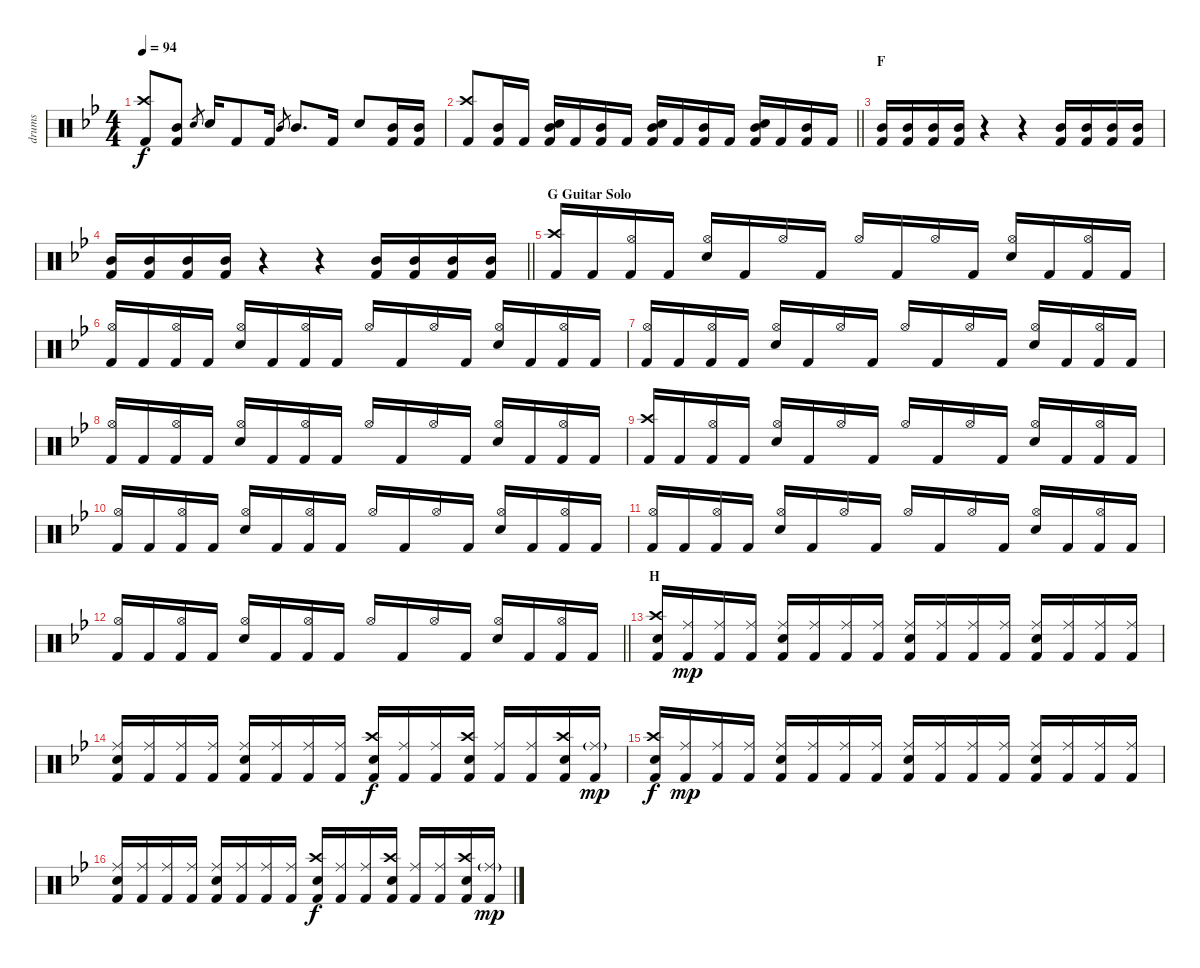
\track ("drums" "drums") {instrument percussion}
\staff {score}
\articulation defaults
\ts (4 4)
\tempo 94
\clef neutral
\ks gminor
("Crash high (hit)" "Kick (hit) 2").8{dy f beam Up} ("Mid Tom (hit)" "Kick (hit) 2").8{beam Up} "Snare (hit) 2".8{gr} "Snare (hit) 2".16 "Kick (hit) 2".8 "Kick (hit) 2".16 "Mid Tom (hit)".8{gr} "Mid Tom (hit)".8{d beam Up} "Kick (hit) 2".16{beam Up} "Snare (hit) 2".8{beam Up} ("Mid Tom (hit)" "Kick (hit) 2").16{beam Up} ("Mid Tom (hit)" "Kick (hit) 2").16{beam Up} |
\barLineRight lightlight
("Crash high (hit)" "Kick (hit) 2").8{beam Up} ("Mid Tom (hit)" "Kick (hit) 2").16{beam Up} "Kick (hit) 2".16{beam Up} ("Mid Tom (hit)" "Snare (hit) 2" "Kick (hit) 2").16{beam Up} "Kick (hit) 2".16{beam Up} ("Mid Tom (hit)" "Kick (hit) 2").16{beam Up} "Kick (hit) 2".16{beam Up} ("Mid Tom (hit)" "Snare (hit) 2" "Kick (hit) 2").16{beam Up} "Kick (hit) 2".16{beam Up} ("Mid Tom (hit)" "Kick (hit) 2").16{beam Up} "Kick (hit) 2".16{beam Up} ("Mid Tom (hit)" "Snare (hit) 2" "Kick (hit) 2").16{beam Up} "Kick (hit) 2".16{beam Up} ("Mid Tom (hit)" "Kick (hit) 2").16{beam Up} "Kick (hit) 2".16{beam Up} |
\section ("" "F")
("Mid Tom (hit)" "Kick (hit) 2").16{beam Up} ("Mid Tom (hit)" "Kick (hit) 2").16{beam Up} ("Mid Tom (hit)" "Kick (hit) 2").16{beam Up} ("Mid Tom (hit)" "Kick (hit) 2").16{beam Up} r.4 r.4 ("Mid Tom (hit)" "Kick (hit) 2").16{beam Up} ("Mid Tom (hit)" "Kick (hit) 2").16{beam Up} ("Mid Tom (hit)" "Kick (hit) 2").16{beam Up} ("Mid Tom (hit)" "Kick (hit) 2").16{beam Up} |
\barLineRight lightlight
("Mid Tom (hit)" "Kick (hit) 2").16{beam Up} ("Mid Tom (hit)" "Kick (hit) 2").16{beam Up} ("Mid Tom (hit)" "Kick (hit) 2").16{beam Up} ("Mid Tom (hit)" "Kick (hit) 2").16{beam Up} r.4 r.4 ("Mid Tom (hit)" "Kick (hit) 2").16{beam Up} ("Mid Tom (hit)" "Kick (hit) 2").16{beam Up} ("Mid Tom (hit)" "Kick (hit) 2").16{beam Up} ("Mid Tom (hit)" "Kick (hit) 2").16{beam Up} |
\section ("" "G Guitar Solo")
("Crash high (hit)" "Kick (hit) 2").16{beam Up} "Kick (hit) 2".16{beam Up} ("Hi-Hat (open)" "Kick (hit) 2").16{beam Up} "Kick (hit) 2".16{beam Up} ("Snare (hit) 2" "Hi-Hat (open)").16{beam Up} "Kick (hit) 2".16{beam Up} "Hi-Hat (open)".16{beam Up} "Kick (hit) 2".16{beam Up} "Hi-Hat (open)".16{beam Up} "Kick (hit) 2".16{beam Up} "Hi-Hat (open)".16{beam Up} "Kick (hit) 2".16{beam Up} ("Snare (hit) 2" "Hi-Hat (open)").16{beam Up} "Kick (hit) 2".16{beam Up} ("Hi-Hat (open)" "Kick (hit) 2").16{beam Up} "Kick (hit) 2".16{beam Up} |
("Hi-Hat (open)" "Kick (hit) 2").16{beam Up} "Kick (hit) 2".16{beam Up} ("Hi-Hat (open)" "Kick (hit) 2").16{beam Up} "Kick (hit) 2".16{beam Up} ("Snare (hit) 2" "Hi-Hat (open)").16{beam Up} "Kick (hit) 2".16{beam Up} ("Hi-Hat (open)" "Kick (hit) 2").16{beam Up} "Kick (hit) 2".16{beam Up} "Hi-Hat (open)".16{beam Up} "Kick (hit) 2".16{beam Up} "Hi-Hat (open)".16{beam Up} "Kick (hit) 2".16{beam Up} ("Snare (hit) 2" "Hi-Hat (open)").16{beam Up} "Kick (hit) 2".16{beam Up} ("Hi-Hat (open)" "Kick (hit) 2").16{beam Up} "Kick (hit) 2".16{beam Up} |
("Hi-Hat (open)" "Kick (hit) 2").16{beam Up} "Kick (hit) 2".16{beam Up} ("Hi-Hat (open)" "Kick (hit) 2").16{beam Up} "Kick (hit) 2".16{beam Up} ("Snare (hit) 2" "Hi-Hat (open)").16{beam Up} "Kick (hit) 2".16{beam Up} "Hi-Hat (open)".16{beam Up} "Kick (hit) 2".16{beam Up} "Hi-Hat (open)".16{beam Up} "Kick (hit) 2".16{beam Up} "Hi-Hat (open)".16{beam Up} "Kick (hit) 2".16{beam Up} ("Snare (hit) 2" "Hi-Hat (open)").16{beam Up} "Kick (hit) 2".16{beam Up} ("Hi-Hat (open)" "Kick (hit) 2").16{beam Up} "Kick (hit) 2".16{beam Up} |
("Hi-Hat (open)" "Kick (hit) 2").16{beam Up} "Kick (hit) 2".16{beam Up} ("Hi-Hat (open)" "Kick (hit) 2").16{beam Up} "Kick (hit) 2".16{beam Up} ("Snare (hit) 2" "Hi-Hat (open)").16{beam Up} "Kick (hit) 2".16{beam Up} ("Hi-Hat (open)" "Kick (hit) 2").16{beam Up} "Kick (hit) 2".16{beam Up} "Hi-Hat (open)".16{beam Up} "Kick (hit) 2".16{beam Up} "Hi-Hat (open)".16{beam Up} "Kick (hit) 2".16{beam Up} ("Snare (hit) 2" "Hi-Hat (open)").16{beam Up} "Kick (hit) 2".16{beam Up} ("Hi-Hat (open)" "Kick (hit) 2").16{beam Up} "Kick (hit) 2".16{beam Up} |
\ks bb
("Crash high (hit)" "Kick (hit) 2").16{beam Up} "Kick (hit) 2".16{beam Up} ("Hi-Hat (open)" "Kick (hit) 2").16{beam Up} "Kick (hit) 2".16{beam Up} ("Snare (hit) 2" "Hi-Hat (open)").16{beam Up} "Kick (hit) 2".16{beam Up} "Hi-Hat (open)".16{beam Up} "Kick (hit) 2".16{beam Up} "Hi-Hat (open)".16{beam Up} "Kick (hit) 2".16{beam Up} "Hi-Hat (open)".16{beam Up} "Kick (hit) 2".16{beam Up} ("Snare (hit) 2" "Hi-Hat (open)").16{beam Up} "Kick (hit) 2".16{beam Up} ("Hi-Hat (open)" "Kick (hit) 2").16{beam Up} "Kick (hit) 2".16{beam Up} |
("Hi-Hat (open)" "Kick (hit) 2").16{beam Up} "Kick (hit) 2".16{beam Up} ("Hi-Hat (open)" "Kick (hit) 2").16{beam Up} "Kick (hit) 2".16{beam Up} ("Snare (hit) 2" "Hi-Hat (open)").16{beam Up} "Kick (hit) 2".16{beam Up} ("Hi-Hat (open)" "Kick (hit) 2").16{beam Up} "Kick (hit) 2".16{beam Up} "Hi-Hat (open)".16{beam Up} "Kick (hit) 2".16{beam Up} "Hi-Hat (open)".16{beam Up} "Kick (hit) 2".16{beam Up} ("Snare (hit) 2" "Hi-Hat (open)").16{beam Up} "Kick (hit) 2".16{beam Up} ("Hi-Hat (open)" "Kick (hit) 2").16{beam Up} "Kick (hit) 2".16{beam Up} |
("Hi-Hat (open)" "Kick (hit) 2").16{beam Up} "Kick (hit) 2".16{beam Up} ("Hi-Hat (open)" "Kick (hit) 2").16{beam Up} "Kick (hit) 2".16{beam Up} ("Snare (hit) 2" "Hi-Hat (open)").16{beam Up} "Kick (hit) 2".16{beam Up} "Hi-Hat (open)".16{beam Up} "Kick (hit) 2".16{beam Up} "Hi-Hat (open)".16{beam Up} "Kick (hit) 2".16{beam Up} "Hi-Hat (open)".16{beam Up} "Kick (hit) 2".16{beam Up} ("Snare (hit) 2" "Hi-Hat (open)").16{beam Up} "Kick (hit) 2".16{beam Up} ("Hi-Hat (open)" "Kick (hit) 2").16{beam Up} "Kick (hit) 2".16{beam Up} |
\barLineRight lightlight
("Hi-Hat (open)" "Kick (hit) 2").16{beam Up} "Kick (hit) 2".16{beam Up} ("Hi-Hat (open)" "Kick (hit) 2").16{beam Up} "Kick (hit) 2".16{beam Up} ("Snare (hit) 2" "Hi-Hat (open)").16{beam Up} "Kick (hit) 2".16{beam Up} ("Hi-Hat (open)" "Kick (hit) 2").16{beam Up} "Kick (hit) 2".16{beam Up} "Hi-Hat (open)".16{beam Up} "Kick (hit) 2".16{beam Up} "Hi-Hat (open)".16{beam Up} "Kick (hit) 2".16{beam Up} ("Snare (hit) 2" "Hi-Hat (open)").16{beam Up} "Kick (hit) 2".16{beam Up} ("Hi-Hat (open)" "Kick (hit) 2").16{beam Up} "Kick (hit) 2".16{beam Up} |
\section ("" "H")
("Crash high (hit)" "Snare (hit) 2" "Kick (hit) 2").16{beam Up} ("Ride (middle)" "Kick (hit) 2").16{dy mp beam Up} ("Ride (middle)" "Kick (hit) 2").16{beam Up} ("Ride (middle)" "Kick (hit) 2").16{beam Up} ("Ride (middle)" "Snare (hit) 2" "Kick (hit) 2").16{beam Up} ("Ride (middle)" "Kick (hit) 2").16{beam Up} ("Ride (middle)" "Kick (hit) 2").16{beam Up} ("Ride (middle)" "Kick (hit) 2").16{beam Up} ("Ride (middle)" "Snare (hit) 2" "Kick (hit) 2").16{beam Up} ("Ride (middle)" "Kick (hit) 2").16{beam Up} ("Ride (middle)" "Kick (hit) 2").16{beam Up} ("Ride (middle)" "Kick (hit) 2").16{beam Up} ("Ride (middle)" "Snare (hit) 2" "Kick (hit) 2").16{beam Up} ("Ride (middle)" "Kick (hit) 2").16{beam Up} ("Ride (middle)" "Kick (hit) 2").16{beam Up} ("Ride (middle)" "Kick (hit) 2").16{beam Up} |
("Ride (middle)" "Snare (hit) 2" "Kick (hit) 2").16{beam Up} ("Ride (middle)" "Kick (hit) 2").16{beam Up} ("Ride (middle)" "Kick (hit) 2").16{beam Up} ("Ride (middle)" "Kick (hit) 2").16{beam Up} ("Ride (middle)" "Snare (hit) 2" "Kick (hit) 2").16{beam Up} ("Ride (middle)" "Kick (hit) 2").16{beam Up} ("Ride (middle)" "Kick (hit) 2").16{beam Up} ("Ride (middle)" "Kick (hit) 2").16{beam Up} ("Crash high (hit)" "Snare (hit) 2" "Kick (hit) 2").16{dy f beam Up} ("Ride (middle)" "Kick (hit) 2").16{beam Up} ("Ride (middle)" "Kick (hit) 2").16{beam Up} ("Crash high (hit)" "Snare (hit) 2" "Kick (hit) 2").16{beam Up} ("Ride (middle)" "Kick (hit) 2").16{beam Up} ("Ride (middle)" "Kick (hit) 2").16{beam Up} ("Crash high (hit)" "Snare (hit) 2" "Kick (hit) 2").16{beam Up} ("Ride (middle)"{g} "Kick (hit) 2").16{dy mp beam Up} |
("Crash high (hit)" "Snare (hit) 2" "Kick (hit) 2").16{dy f beam Up} ("Ride (middle)" "Kick (hit) 2").16{dy mp beam Up} ("Ride (middle)" "Kick (hit) 2").16{beam Up} ("Ride (middle)" "Kick (hit) 2").16{beam Up} ("Ride (middle)" "Snare (hit) 2" "Kick (hit) 2").16{beam Up} ("Ride (middle)" "Kick (hit) 2").16{beam Up} ("Ride (middle)" "Kick (hit) 2").16{beam Up} ("Ride (middle)" "Kick (hit) 2").16{beam Up} ("Ride (middle)" "Snare (hit) 2" "Kick (hit) 2").16{beam Up} ("Ride (middle)" "Kick (hit) 2").16{beam Up} ("Ride (middle)" "Kick (hit) 2").16{beam Up} ("Ride (middle)" "Kick (hit) 2").16{beam Up} ("Ride (middle)" "Snare (hit) 2" "Kick (hit) 2").16{beam Up} ("Ride (middle)" "Kick (hit) 2").16{beam Up} ("Ride (middle)" "Kick (hit) 2").16{beam Up} ("Ride (middle)" "Kick (hit) 2").16{beam Up} |
("Ride (middle)" "Snare (hit) 2" "Kick (hit) 2").16{beam Up} ("Ride (middle)" "Kick (hit) 2").16{beam Up} ("Ride (middle)" "Kick (hit) 2").16{beam Up} ("Ride (middle)" "Kick (hit) 2").16{beam Up} ("Ride (middle)" "Snare (hit) 2" "Kick (hit) 2").16{beam Up} ("Ride (middle)" "Kick (hit) 2").16{beam Up} ("Ride (middle)" "Kick (hit) 2").16{beam Up} ("Ride (middle)" "Kick (hit) 2").16{beam Up} ("Crash high (hit)" "Snare (hit) 2" "Kick (hit) 2").16{dy f beam Up} ("Ride (middle)" "Kick (hit) 2").16{beam Up} ("Ride (middle)" "Kick (hit) 2").16{beam Up} ("Crash high (hit)" "Snare (hit) 2" "Kick (hit) 2").16{beam Up} ("Ride (middle)" "Kick (hit) 2").16{beam Up} ("Ride (middle)" "Kick (hit) 2").16{beam Up} ("Crash high (hit)" "Snare (hit) 2" "Kick (hit) 2").16{beam Up} ("Ride (middle)"{g} "Kick (hit) 2").16{dy mp beam Up}
